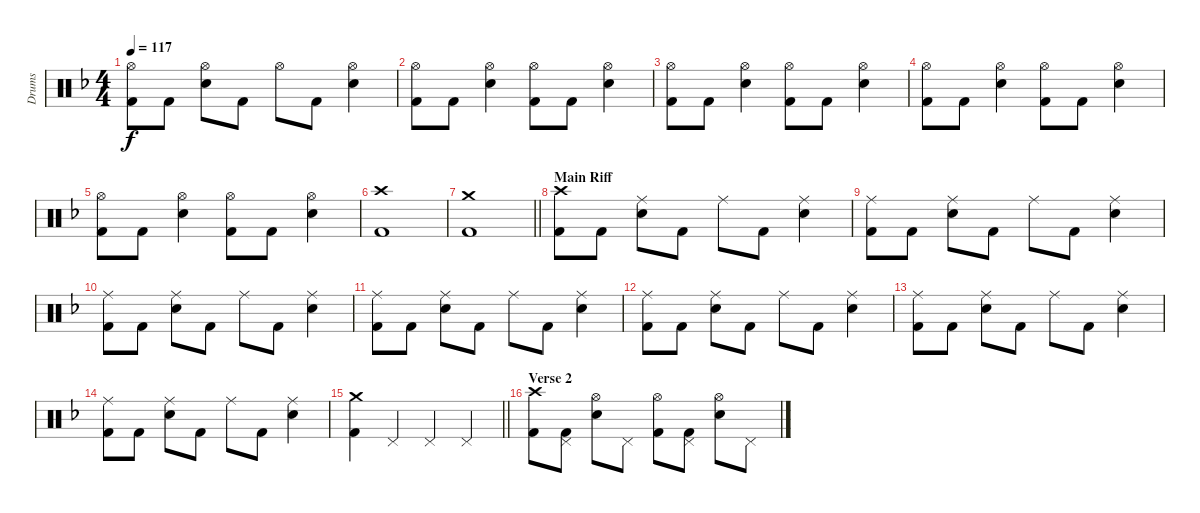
\track ("Drums" "Drums") {instrument percussion}
\staff {score}
\articulation defaults
\ts (4 4)
\tempo 117
\clef neutral
\ks dminor
("Hi-Hat (open)" "Kick (hit) 2").8{dy f} "Kick (hit) 2".8 ("Hi-Hat (open)" "Snare (hit) 2").8 "Kick (hit) 2".8 "Hi-Hat (open)".8 "Kick (hit) 2".8 ("Hi-Hat (open)" "Snare (hit) 2").4 |
("Hi-Hat (open)" "Kick (hit) 2").8 "Kick (hit) 2".8 ("Hi-Hat (open)" "Snare (hit) 2").4 ("Hi-Hat (open)" "Kick (hit) 2").8 "Kick (hit) 2".8 ("Hi-Hat (open)" "Snare (hit) 2").4 |
("Hi-Hat (open)" "Kick (hit) 2").8 "Kick (hit) 2".8 ("Hi-Hat (open)" "Snare (hit) 2").4 ("Hi-Hat (open)" "Kick (hit) 2").8 "Kick (hit) 2".8 ("Hi-Hat (open)" "Snare (hit) 2").4 |
("Hi-Hat (open)" "Kick (hit) 2").8 "Kick (hit) 2".8 ("Hi-Hat (open)" "Snare (hit) 2").4 ("Hi-Hat (open)" "Kick (hit) 2").8 "Kick (hit) 2".8 ("Hi-Hat (open)" "Snare (hit) 2").4 |
("Hi-Hat (open)" "Kick (hit) 2").8 "Kick (hit) 2".8 ("Hi-Hat (open)" "Snare (hit) 2").4 ("Hi-Hat (open)" "Kick (hit) 2").8 "Kick (hit) 2".8 ("Hi-Hat (open)" "Snare (hit) 2").4 |
("Kick (hit) 2" "Crash high (hit)").1 |
\barLineRight lightlight
("Kick (hit) 2" "Crash medium (hit)").1 |
\section ("" "Main Riff")
("Kick (hit) 2" "Crash high (hit)").8 "Kick (hit) 2".8 ("Snare (hit) 2" "Ride (middle)").8 "Kick (hit) 2".8 "Ride (middle)".8 "Kick (hit) 2".8 ("Snare (hit) 2" "Ride (middle)").4 |
("Kick (hit) 2" "Ride (middle)").8 "Kick (hit) 2".8 ("Snare (hit) 2" "Ride (middle)").8 "Kick (hit) 2".8 "Ride (middle)".8 "Kick (hit) 2".8 ("Snare (hit) 2" "Ride (middle)").4 |
("Kick (hit) 2" "Ride (middle)").8 "Kick (hit) 2".8 ("Snare (hit) 2" "Ride (middle)").8 "Kick (hit) 2".8 "Ride (middle)".8 "Kick (hit) 2".8 ("Snare (hit) 2" "Ride (middle)").4 |
("Kick (hit) 2" "Ride (middle)").8 "Kick (hit) 2".8 ("Snare (hit) 2" "Ride (middle)").8 "Kick (hit) 2".8 "Ride (middle)".8 "Kick (hit) 2".8 ("Snare (hit) 2" "Ride (middle)").4 |
("Kick (hit) 2" "Ride (middle)").8 "Kick (hit) 2".8 ("Snare (hit) 2" "Ride (middle)").8 "Kick (hit) 2".8 "Ride (middle)".8 "Kick (hit) 2".8 ("Snare (hit) 2" "Ride (middle)").4 |
("Kick (hit) 2" "Ride (middle)").8 "Kick (hit) 2".8 ("Snare (hit) 2" "Ride (middle)").8 "Kick (hit) 2".8 "Ride (middle)".8 "Kick (hit) 2".8 ("Snare (hit) 2" "Ride (middle)").4 |
("Kick (hit) 2" "Ride (middle)").8 "Kick (hit) 2".8 ("Snare (hit) 2" "Ride (middle)").8 "Kick (hit) 2".8 "Ride (middle)".8 "Kick (hit) 2".8 ("Snare (hit) 2" "Ride (middle)").4 |
\barLineRight lightlight
("Kick (hit) 2" "Crash medium (hit)").4 "Pedal Hi-Hat (hit)".4 "Pedal Hi-Hat (hit)".4 "Pedal Hi-Hat (hit)".4 |
\section ("" "Verse 2")
("Kick (hit) 2" "Crash high (hit)").8 ("Pedal Hi-Hat (hit)" "Kick (hit) 2").8 ("Hi-Hat (open)" "Snare (hit) 2").8 "Pedal Hi-Hat (hit)".8 ("Hi-Hat (open)" "Kick (hit) 2").8 ("Pedal Hi-Hat (hit)" "Kick (hit) 2").8 ("Hi-Hat (open)" "Snare (hit) 2").8 "Pedal Hi-Hat (hit)".8
